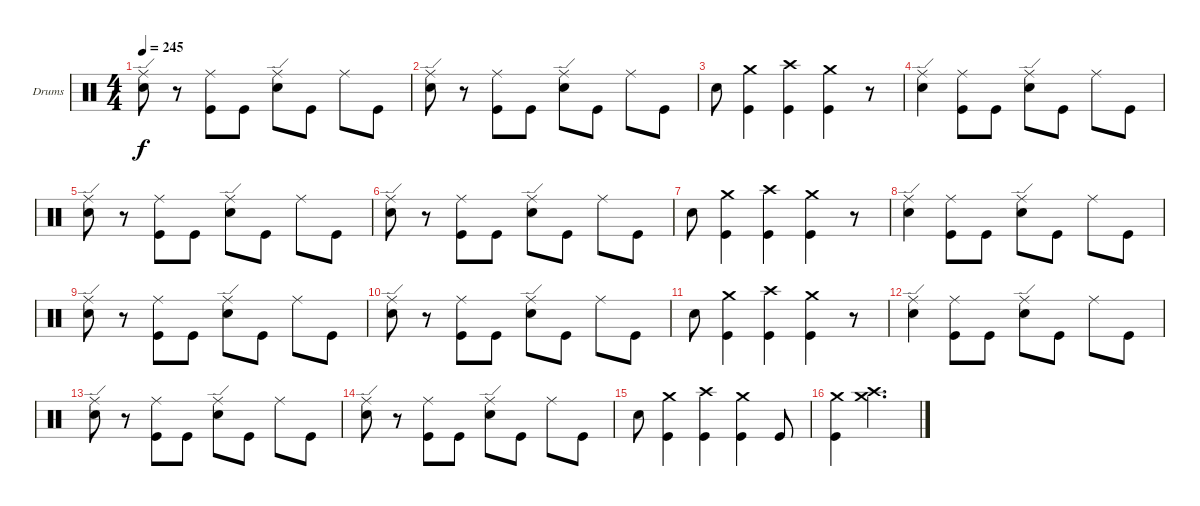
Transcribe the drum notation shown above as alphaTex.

\bracketExtendMode groupsimilarinstruments
\firstSystemTrackNameOrientation horizontal
\otherSystemsTrackNameOrientation horizontal
\track ("Drumkit" "Drums") {instrument percussion}
\staff {score}
\articulation defaults
\ts (4 4)
\tempo 245
\clef neutral
\ks c
("Snare (hit) 2" "Ride (edge)").8{dy f} r.8 ("Kick (hit)" "Ride (middle)").8 "Kick (hit)".8 ("Snare (hit) 2" "Ride (edge)").8 "Kick (hit)".8 "Ride (middle)".8 "Kick (hit)".8 |
("Snare (hit) 2" "Ride (edge)").8 r.8 ("Kick (hit)" "Ride (middle)").8 "Kick (hit)".8 ("Snare (hit) 2" "Ride (edge)").8 "Kick (hit)".8 "Ride (middle)".8 "Kick (hit)".8 |
"Snare (hit) 2".8 ("Kick (hit)" "Crash medium (hit)").4 ("Kick (hit)" "Crash high (hit)").4 ("Kick (hit)" "Crash medium (hit)").4 r.8 |
("Snare (hit) 2" "Ride (edge)").4 ("Kick (hit)" "Ride (middle)").8 "Kick (hit)".8 ("Snare (hit) 2" "Ride (edge)").8 "Kick (hit)".8 "Ride (middle)".8 "Kick (hit)".8 |
("Snare (hit) 2" "Ride (edge)").8 r.8 ("Kick (hit)" "Ride (middle)").8 "Kick (hit)".8 ("Snare (hit) 2" "Ride (edge)").8 "Kick (hit)".8 "Ride (middle)".8 "Kick (hit)".8 |
("Snare (hit) 2" "Ride (edge)").8 r.8 ("Kick (hit)" "Ride (middle)").8 "Kick (hit)".8 ("Snare (hit) 2" "Ride (edge)").8 "Kick (hit)".8 "Ride (middle)".8 "Kick (hit)".8 |
"Snare (hit) 2".8 ("Kick (hit)" "Crash medium (hit)").4 ("Kick (hit)" "Crash high (hit)").4 ("Kick (hit)" "Crash medium (hit)").4 r.8 |
("Snare (hit) 2" "Ride (edge)").4 ("Kick (hit)" "Ride (middle)").8 "Kick (hit)".8 ("Snare (hit) 2" "Ride (edge)").8 "Kick (hit)".8 "Ride (middle)".8 "Kick (hit)".8 |
("Snare (hit) 2" "Ride (edge)").8 r.8 ("Kick (hit)" "Ride (middle)").8 "Kick (hit)".8 ("Snare (hit) 2" "Ride (edge)").8 "Kick (hit)".8 "Ride (middle)".8 "Kick (hit)".8 |
("Snare (hit) 2" "Ride (edge)").8 r.8 ("Kick (hit)" "Ride (middle)").8 "Kick (hit)".8 ("Snare (hit) 2" "Ride (edge)").8 "Kick (hit)".8 "Ride (middle)".8 "Kick (hit)".8 |
"Snare (hit) 2".8 ("Kick (hit)" "Crash medium (hit)").4 ("Kick (hit)" "Crash high (hit)").4 ("Kick (hit)" "Crash medium (hit)").4 r.8 |
("Snare (hit) 2" "Ride (edge)").4 ("Kick (hit)" "Ride (middle)").8 "Kick (hit)".8 ("Snare (hit) 2" "Ride (edge)").8 "Kick (hit)".8 "Ride (middle)".8 "Kick (hit)".8 |
("Snare (hit) 2" "Ride (edge)").8 r.8 ("Kick (hit)" "Ride (middle)").8 "Kick (hit)".8 ("Snare (hit) 2" "Ride (edge)").8 "Kick (hit)".8 "Ride (middle)".8 "Kick (hit)".8 |
("Snare (hit) 2" "Ride (edge)").8 r.8 ("Kick (hit)" "Ride (middle)").8 "Kick (hit)".8 ("Snare (hit) 2" "Ride (edge)").8 "Kick (hit)".8 "Ride (middle)".8 "Kick (hit)".8 |
"Snare (hit) 2".8 ("Kick (hit)" "Crash medium (hit)").4 ("Kick (hit)" "Crash high (hit)").4 ("Kick (hit)" "Crash medium (hit)").4 "Kick (hit)".8 |
("Crash medium (hit)" "Kick (hit)").4 ("Crash medium (hit)" "Crash high (hit)").2{d}
